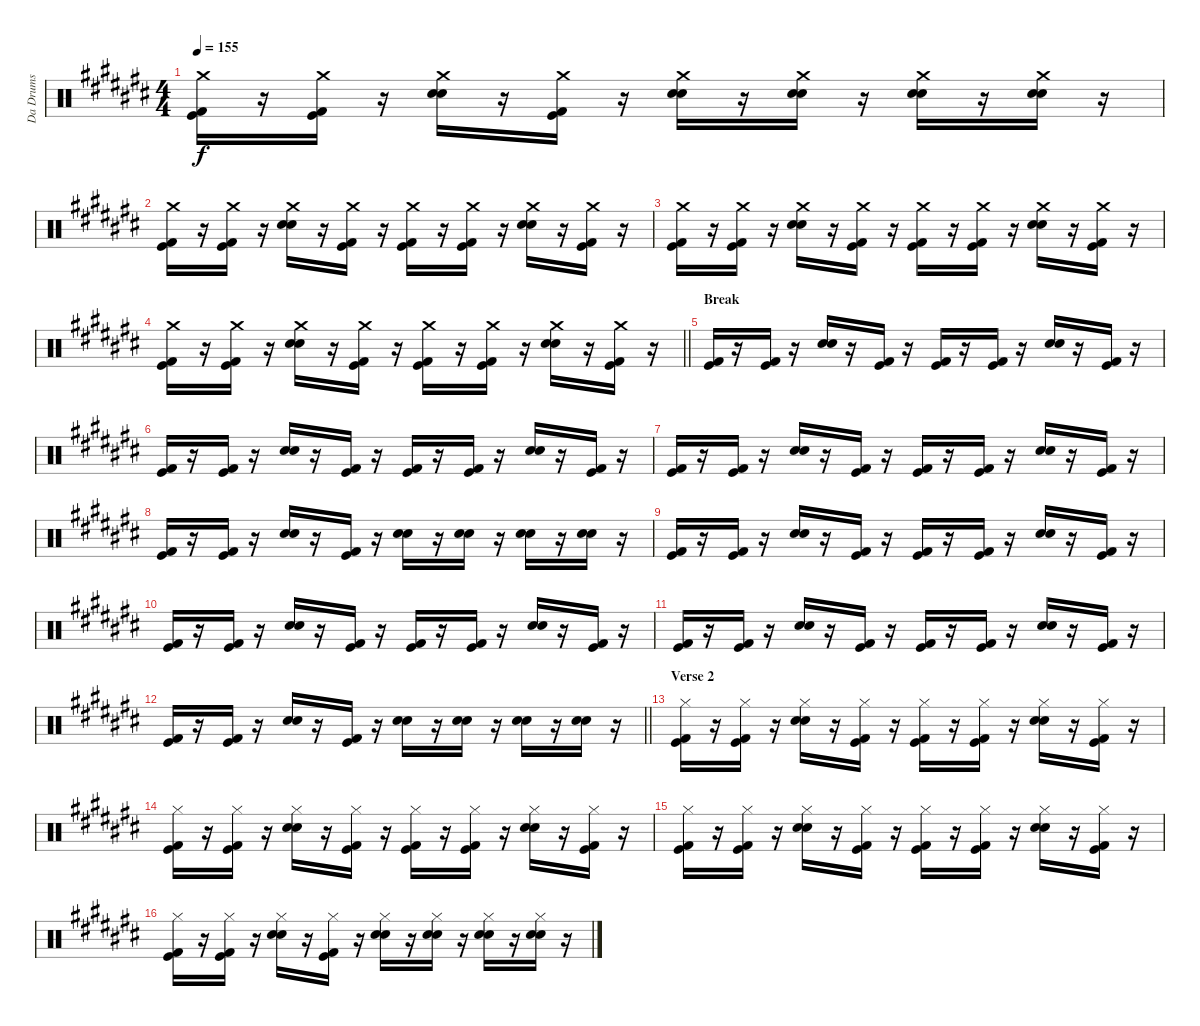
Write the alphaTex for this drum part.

\track ("Da Drums" "Da Drums") {instrument percussion}
\staff {score}
\articulation defaults
\ts (4 4)
\tempo 155
\clef neutral
\ks c#
("Crash medium (hit)" "Kick (hit)" "Kick (hit) 2").16{dy f} r.16 ("Crash medium (hit)" "Kick (hit)" "Kick (hit) 2").16 r.16 ("Crash medium (hit)" "Electric Snare (hit)" "Snare (hit) 2").16 r.16 ("Crash medium (hit)" "Kick (hit)" "Kick (hit) 2").16 r.16 ("Crash medium (hit)" "Electric Snare (hit)" "Snare (hit) 2").16 r.16 ("Crash medium (hit)" "Electric Snare (hit)" "Snare (hit) 2").16 r.16 ("Crash medium (hit)" "Electric Snare (hit)" "Snare (hit) 2").16 r.16 ("Crash medium (hit)" "Electric Snare (hit)" "Snare (hit) 2").16 r.16 |
("Crash medium (hit)" "Kick (hit)" "Kick (hit) 2").16 r.16 ("Crash medium (hit)" "Kick (hit)" "Kick (hit) 2").16 r.16 ("Crash medium (hit)" "Electric Snare (hit)" "Snare (hit) 2").16 r.16 ("Crash medium (hit)" "Kick (hit)" "Kick (hit) 2").16 r.16 ("Crash medium (hit)" "Kick (hit)" "Kick (hit) 2").16 r.16 ("Crash medium (hit)" "Kick (hit)" "Kick (hit) 2").16 r.16 ("Crash medium (hit)" "Electric Snare (hit)" "Snare (hit) 2").16 r.16 ("Crash medium (hit)" "Kick (hit)" "Kick (hit) 2").16 r.16 |
("Crash medium (hit)" "Kick (hit)" "Kick (hit) 2").16 r.16 ("Crash medium (hit)" "Kick (hit)" "Kick (hit) 2").16 r.16 ("Crash medium (hit)" "Electric Snare (hit)" "Snare (hit) 2").16 r.16 ("Crash medium (hit)" "Kick (hit)" "Kick (hit) 2").16 r.16 ("Crash medium (hit)" "Kick (hit)" "Kick (hit) 2").16 r.16 ("Crash medium (hit)" "Kick (hit)" "Kick (hit) 2").16 r.16 ("Crash medium (hit)" "Electric Snare (hit)" "Snare (hit) 2").16 r.16 ("Crash medium (hit)" "Kick (hit)" "Kick (hit) 2").16 r.16 |
\barLineRight lightlight
("Crash medium (hit)" "Kick (hit)" "Kick (hit) 2").16 r.16 ("Crash medium (hit)" "Kick (hit)" "Kick (hit) 2").16 r.16 ("Crash medium (hit)" "Electric Snare (hit)" "Snare (hit) 2").16 r.16 ("Crash medium (hit)" "Kick (hit)" "Kick (hit) 2").16 r.16 ("Crash medium (hit)" "Kick (hit)" "Kick (hit) 2").16 r.16 ("Crash medium (hit)" "Kick (hit)" "Kick (hit) 2").16 r.16 ("Crash medium (hit)" "Electric Snare (hit)" "Snare (hit) 2").16 r.16 ("Crash medium (hit)" "Kick (hit)" "Kick (hit) 2").16 r.16 |
\section ("" "Break")
("Kick (hit)" "Kick (hit) 2").16 r.16 ("Kick (hit)" "Kick (hit) 2").16 r.16 ("Electric Snare (hit)" "Snare (hit) 2").16 r.16 ("Kick (hit)" "Kick (hit) 2").16 r.16 ("Kick (hit)" "Kick (hit) 2").16 r.16 ("Kick (hit)" "Kick (hit) 2").16 r.16 ("Electric Snare (hit)" "Snare (hit) 2").16 r.16 ("Kick (hit)" "Kick (hit) 2").16 r.16 |
("Kick (hit)" "Kick (hit) 2").16 r.16 ("Kick (hit)" "Kick (hit) 2").16 r.16 ("Electric Snare (hit)" "Snare (hit) 2").16 r.16 ("Kick (hit)" "Kick (hit) 2").16 r.16 ("Kick (hit)" "Kick (hit) 2").16 r.16 ("Kick (hit)" "Kick (hit) 2").16 r.16 ("Electric Snare (hit)" "Snare (hit) 2").16 r.16 ("Kick (hit)" "Kick (hit) 2").16 r.16 |
("Kick (hit)" "Kick (hit) 2").16 r.16 ("Kick (hit)" "Kick (hit) 2").16 r.16 ("Electric Snare (hit)" "Snare (hit) 2").16 r.16 ("Kick (hit)" "Kick (hit) 2").16 r.16 ("Kick (hit)" "Kick (hit) 2").16 r.16 ("Kick (hit)" "Kick (hit) 2").16 r.16 ("Electric Snare (hit)" "Snare (hit) 2").16 r.16 ("Kick (hit)" "Kick (hit) 2").16 r.16 |
("Kick (hit)" "Kick (hit) 2").16 r.16 ("Kick (hit)" "Kick (hit) 2").16 r.16 ("Electric Snare (hit)" "Snare (hit) 2").16 r.16 ("Kick (hit)" "Kick (hit) 2").16 r.16 ("Electric Snare (hit)" "Snare (hit) 2").16 r.16 ("Electric Snare (hit)" "Snare (hit) 2").16 r.16 ("Electric Snare (hit)" "Snare (hit) 2").16 r.16 ("Electric Snare (hit)" "Snare (hit) 2").16 r.16 |
("Kick (hit)" "Kick (hit) 2").16 r.16 ("Kick (hit)" "Kick (hit) 2").16 r.16 ("Electric Snare (hit)" "Snare (hit) 2").16 r.16 ("Kick (hit)" "Kick (hit) 2").16 r.16 ("Kick (hit)" "Kick (hit) 2").16 r.16 ("Kick (hit)" "Kick (hit) 2").16 r.16 ("Electric Snare (hit)" "Snare (hit) 2").16 r.16 ("Kick (hit)" "Kick (hit) 2").16 r.16 |
("Kick (hit)" "Kick (hit) 2").16 r.16 ("Kick (hit)" "Kick (hit) 2").16 r.16 ("Electric Snare (hit)" "Snare (hit) 2").16 r.16 ("Kick (hit)" "Kick (hit) 2").16 r.16 ("Kick (hit)" "Kick (hit) 2").16 r.16 ("Kick (hit)" "Kick (hit) 2").16 r.16 ("Electric Snare (hit)" "Snare (hit) 2").16 r.16 ("Kick (hit)" "Kick (hit) 2").16 r.16 |
("Kick (hit)" "Kick (hit) 2").16 r.16 ("Kick (hit)" "Kick (hit) 2").16 r.16 ("Electric Snare (hit)" "Snare (hit) 2").16 r.16 ("Kick (hit)" "Kick (hit) 2").16 r.16 ("Kick (hit)" "Kick (hit) 2").16 r.16 ("Kick (hit)" "Kick (hit) 2").16 r.16 ("Electric Snare (hit)" "Snare (hit) 2").16 r.16 ("Kick (hit)" "Kick (hit) 2").16 r.16 |
\barLineRight lightlight
("Kick (hit)" "Kick (hit) 2").16 r.16 ("Kick (hit)" "Kick (hit) 2").16 r.16 ("Electric Snare (hit)" "Snare (hit) 2").16 r.16 ("Kick (hit)" "Kick (hit) 2").16 r.16 ("Electric Snare (hit)" "Snare (hit) 2").16 r.16 ("Electric Snare (hit)" "Snare (hit) 2").16 r.16 ("Electric Snare (hit)" "Snare (hit) 2").16 r.16 ("Electric Snare (hit)" "Snare (hit) 2").16 r.16 |
\section ("" "Verse 2")
("Hi-Hat (closed)" "Kick (hit)" "Kick (hit) 2").16 r.16 ("Hi-Hat (closed)" "Kick (hit)" "Kick (hit) 2").16 r.16 ("Hi-Hat (closed)" "Electric Snare (hit)" "Snare (hit) 2").16 r.16 ("Hi-Hat (closed)" "Kick (hit)" "Kick (hit) 2").16 r.16 ("Hi-Hat (closed)" "Kick (hit)" "Kick (hit) 2").16 r.16 ("Hi-Hat (closed)" "Kick (hit)" "Kick (hit) 2").16 r.16 ("Hi-Hat (closed)" "Electric Snare (hit)" "Snare (hit) 2").16 r.16 ("Hi-Hat (closed)" "Kick (hit)" "Kick (hit) 2").16 r.16 |
("Hi-Hat (closed)" "Kick (hit)" "Kick (hit) 2").16 r.16 ("Hi-Hat (closed)" "Kick (hit)" "Kick (hit) 2").16 r.16 ("Hi-Hat (closed)" "Electric Snare (hit)" "Snare (hit) 2").16 r.16 ("Hi-Hat (closed)" "Kick (hit)" "Kick (hit) 2").16 r.16 ("Hi-Hat (closed)" "Kick (hit)" "Kick (hit) 2").16 r.16 ("Hi-Hat (closed)" "Kick (hit)" "Kick (hit) 2").16 r.16 ("Hi-Hat (closed)" "Electric Snare (hit)" "Snare (hit) 2").16 r.16 ("Hi-Hat (closed)" "Kick (hit)" "Kick (hit) 2").16 r.16 |
("Hi-Hat (closed)" "Kick (hit)" "Kick (hit) 2").16 r.16 ("Hi-Hat (closed)" "Kick (hit)" "Kick (hit) 2").16 r.16 ("Hi-Hat (closed)" "Electric Snare (hit)" "Snare (hit) 2").16 r.16 ("Hi-Hat (closed)" "Kick (hit)" "Kick (hit) 2").16 r.16 ("Hi-Hat (closed)" "Kick (hit)" "Kick (hit) 2").16 r.16 ("Hi-Hat (closed)" "Kick (hit)" "Kick (hit) 2").16 r.16 ("Hi-Hat (closed)" "Electric Snare (hit)" "Snare (hit) 2").16 r.16 ("Hi-Hat (closed)" "Kick (hit)" "Kick (hit) 2").16 r.16 |
("Hi-Hat (closed)" "Kick (hit)" "Kick (hit) 2").16 r.16 ("Hi-Hat (closed)" "Kick (hit)" "Kick (hit) 2").16 r.16 ("Hi-Hat (closed)" "Electric Snare (hit)" "Snare (hit) 2").16 r.16 ("Hi-Hat (closed)" "Kick (hit)" "Kick (hit) 2").16 r.16 ("Hi-Hat (closed)" "Electric Snare (hit)" "Snare (hit) 2").16 r.16 ("Hi-Hat (closed)" "Electric Snare (hit)" "Snare (hit) 2").16 r.16 ("Hi-Hat (closed)" "Electric Snare (hit)" "Snare (hit) 2").16 r.16 ("Hi-Hat (closed)" "Electric Snare (hit)" "Snare (hit) 2").16 r.16
